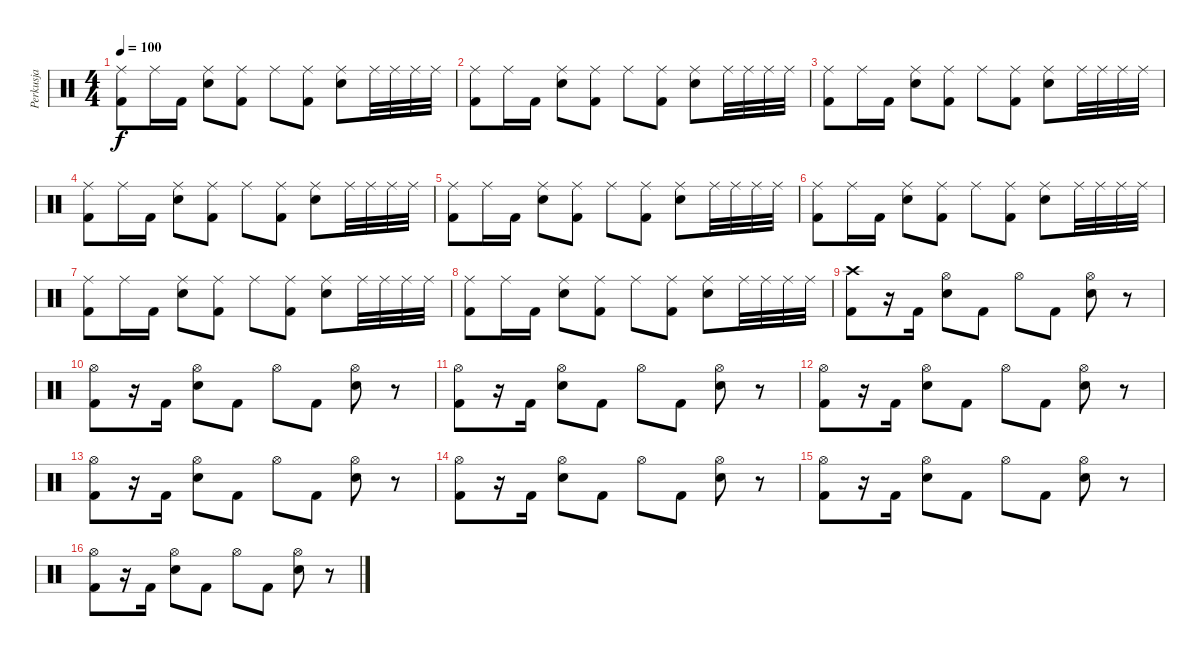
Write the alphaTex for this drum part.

\track ("Perkusja" "Perkusja") {instrument percussion}
\staff {score}
\articulation defaults
\ts (4 4)
\tempo 100
\clef neutral
\ks c
("Ride (middle)" "Kick (hit) 2").8{dy f} "Ride (middle)".16 "Kick (hit) 2".16 ("Ride (middle)" "Electric Snare (hit)").8 ("Ride (middle)" "Kick (hit) 2").8 "Ride (middle)".8 ("Ride (middle)" "Kick (hit) 2").8 ("Ride (middle)" "Electric Snare (hit)").8 "Ride (middle)".32 "Ride (middle)".32 "Ride (middle)".32 "Ride (middle)".32 |
("Ride (middle)" "Kick (hit) 2").8 "Ride (middle)".16 "Kick (hit) 2".16 ("Ride (middle)" "Electric Snare (hit)").8 ("Ride (middle)" "Kick (hit) 2").8 "Ride (middle)".8 ("Ride (middle)" "Kick (hit) 2").8 ("Ride (middle)" "Electric Snare (hit)").8 "Ride (middle)".32 "Ride (middle)".32 "Ride (middle)".32 "Ride (middle)".32 |
("Ride (middle)" "Kick (hit) 2").8 "Ride (middle)".16 "Kick (hit) 2".16 ("Ride (middle)" "Electric Snare (hit)").8 ("Ride (middle)" "Kick (hit) 2").8 "Ride (middle)".8 ("Ride (middle)" "Kick (hit) 2").8 ("Ride (middle)" "Electric Snare (hit)").8 "Ride (middle)".32 "Ride (middle)".32 "Ride (middle)".32 "Ride (middle)".32 |
("Ride (middle)" "Kick (hit) 2").8 "Ride (middle)".16 "Kick (hit) 2".16 ("Ride (middle)" "Electric Snare (hit)").8 ("Ride (middle)" "Kick (hit) 2").8 "Ride (middle)".8 ("Ride (middle)" "Kick (hit) 2").8 ("Ride (middle)" "Electric Snare (hit)").8 "Ride (middle)".32 "Ride (middle)".32 "Ride (middle)".32 "Ride (middle)".32 |
("Ride (middle)" "Kick (hit) 2").8 "Ride (middle)".16 "Kick (hit) 2".16 ("Ride (middle)" "Electric Snare (hit)").8 ("Ride (middle)" "Kick (hit) 2").8 "Ride (middle)".8 ("Ride (middle)" "Kick (hit) 2").8 ("Ride (middle)" "Electric Snare (hit)").8 "Ride (middle)".32 "Ride (middle)".32 "Ride (middle)".32 "Ride (middle)".32 |
("Ride (middle)" "Kick (hit) 2").8 "Ride (middle)".16 "Kick (hit) 2".16 ("Ride (middle)" "Electric Snare (hit)").8 ("Ride (middle)" "Kick (hit) 2").8 "Ride (middle)".8 ("Ride (middle)" "Kick (hit) 2").8 ("Ride (middle)" "Electric Snare (hit)").8 "Ride (middle)".32 "Ride (middle)".32 "Ride (middle)".32 "Ride (middle)".32 |
("Ride (middle)" "Kick (hit) 2").8 "Ride (middle)".16 "Kick (hit) 2".16 ("Ride (middle)" "Electric Snare (hit)").8 ("Ride (middle)" "Kick (hit) 2").8 "Ride (middle)".8 ("Ride (middle)" "Kick (hit) 2").8 ("Ride (middle)" "Electric Snare (hit)").8 "Ride (middle)".32 "Ride (middle)".32 "Ride (middle)".32 "Ride (middle)".32 |
("Ride (middle)" "Kick (hit) 2").8 "Ride (middle)".16 "Kick (hit) 2".16 ("Ride (middle)" "Electric Snare (hit)").8 ("Ride (middle)" "Kick (hit) 2").8 "Ride (middle)".8 ("Ride (middle)" "Kick (hit) 2").8 ("Ride (middle)" "Electric Snare (hit)").8 "Ride (middle)".32 "Ride (middle)".32 "Ride (middle)".32 "Ride (middle)".32 |
("Crash high (hit)" "Kick (hit) 2").8 r.16 "Kick (hit) 2".16 ("Hi-Hat (open)" "Electric Snare (hit)").8 "Kick (hit) 2".8 "Hi-Hat (open)".8 "Kick (hit) 2".8 ("Hi-Hat (open)" "Electric Snare (hit)").8 r.8 |
("Hi-Hat (open)" "Kick (hit) 2").8 r.16 "Kick (hit) 2".16 ("Hi-Hat (open)" "Electric Snare (hit)").8 "Kick (hit) 2".8 "Hi-Hat (open)".8 "Kick (hit) 2".8 ("Hi-Hat (open)" "Electric Snare (hit)").8 r.8 |
("Hi-Hat (open)" "Kick (hit) 2").8 r.16 "Kick (hit) 2".16 ("Hi-Hat (open)" "Electric Snare (hit)").8 "Kick (hit) 2".8 "Hi-Hat (open)".8 "Kick (hit) 2".8 ("Hi-Hat (open)" "Electric Snare (hit)").8 r.8 |
("Hi-Hat (open)" "Kick (hit) 2").8 r.16 "Kick (hit) 2".16 ("Hi-Hat (open)" "Electric Snare (hit)").8 "Kick (hit) 2".8 "Hi-Hat (open)".8 "Kick (hit) 2".8 ("Hi-Hat (open)" "Electric Snare (hit)").8 r.8 |
("Hi-Hat (open)" "Kick (hit) 2").8 r.16 "Kick (hit) 2".16 ("Hi-Hat (open)" "Electric Snare (hit)").8 "Kick (hit) 2".8 "Hi-Hat (open)".8 "Kick (hit) 2".8 ("Hi-Hat (open)" "Electric Snare (hit)").8 r.8 |
("Hi-Hat (open)" "Kick (hit) 2").8 r.16 "Kick (hit) 2".16 ("Hi-Hat (open)" "Electric Snare (hit)").8 "Kick (hit) 2".8 "Hi-Hat (open)".8 "Kick (hit) 2".8 ("Hi-Hat (open)" "Electric Snare (hit)").8 r.8 |
("Hi-Hat (open)" "Kick (hit) 2").8 r.16 "Kick (hit) 2".16 ("Hi-Hat (open)" "Electric Snare (hit)").8 "Kick (hit) 2".8 "Hi-Hat (open)".8 "Kick (hit) 2".8 ("Hi-Hat (open)" "Electric Snare (hit)").8 r.8 |
("Hi-Hat (open)" "Kick (hit) 2").8 r.16 "Kick (hit) 2".16 ("Hi-Hat (open)" "Electric Snare (hit)").8 "Kick (hit) 2".8 "Hi-Hat (open)".8 "Kick (hit) 2".8 ("Hi-Hat (open)" "Electric Snare (hit)").8 r.8
